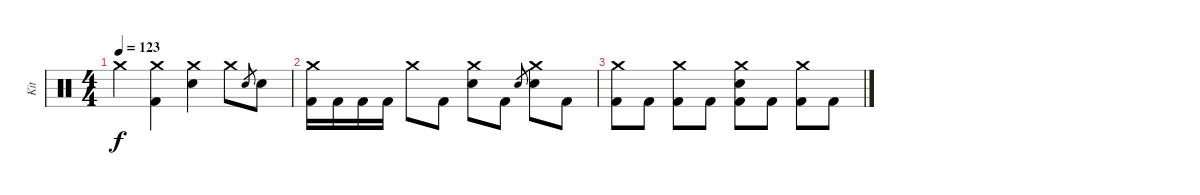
\track ("Kit" "Kit") {instrument percussion}
\staff {score}
\articulation defaults
\ts (4 4)
\tempo 123
\clef neutral
\ks c "Crash medium (hit)".4{dy f}
("Crash medium (hit)" "Kick (hit) 2").4 ("Crash medium (hit)" "Electric Snare (hit)").4 "Crash medium (hit)".8 "Electric Snare (hit)".8{gr} "Electric Snare (hit)".8 |
("Crash medium (hit)" "Kick (hit) 2").16 "Kick (hit) 2".16 "Kick (hit) 2".16 "Kick (hit) 2".16 "Crash medium (hit)".8 "Kick (hit) 2".8 ("Crash medium (hit)" "Electric Snare (hit)").8 "Kick (hit) 2".8 "Electric Snare (hit)".8{gr} ("Crash medium (hit)" "Electric Snare (hit)").8 "Kick (hit) 2".8 |
("Crash medium (hit)" "Kick (hit) 2").8 "Kick (hit) 2".8 ("Crash medium (hit)" "Kick (hit) 2").8 "Kick (hit) 2".8 ("Crash medium (hit)" "Electric Snare (hit)" "Kick (hit) 2").8 "Kick (hit) 2".8 ("Crash medium (hit)" "Kick (hit) 2").8 "Kick (hit) 2".8
